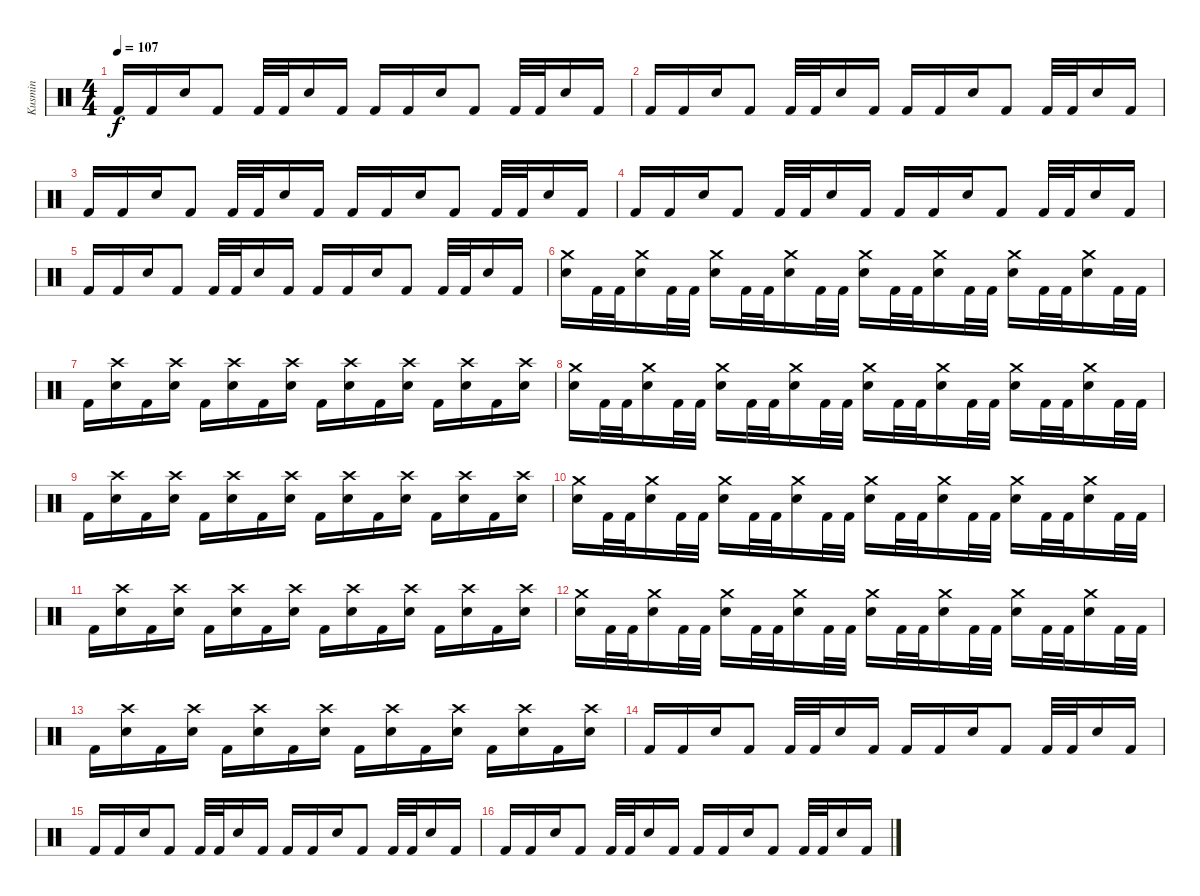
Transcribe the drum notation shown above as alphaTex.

\track ("Kusmin" "Kusmin") {instrument percussion}
\staff {score}
\articulation defaults
\ts (4 4)
\tempo 107
\clef neutral
\ks c "Kick (hit) 2".16{dy f} "Kick (hit) 2".16 "Snare (hit) 2".16 "Kick (hit) 2".8 "Kick (hit) 2".32 "Kick (hit) 2".32 "Snare (hit) 2".16 "Kick (hit) 2".16 "Kick (hit) 2".16 "Kick (hit) 2".16 "Snare (hit) 2".16 "Kick (hit) 2".8 "Kick (hit) 2".32 "Kick (hit) 2".32 "Snare (hit) 2".16 "Kick (hit) 2".16
|
"Kick (hit) 2".16 "Kick (hit) 2".16 "Snare (hit) 2".16 "Kick (hit) 2".8 "Kick (hit) 2".32 "Kick (hit) 2".32 "Snare (hit) 2".16 "Kick (hit) 2".16 "Kick (hit) 2".16 "Kick (hit) 2".16 "Snare (hit) 2".16 "Kick (hit) 2".8 "Kick (hit) 2".32 "Kick (hit) 2".32 "Snare (hit) 2".16 "Kick (hit) 2".16 |
"Kick (hit) 2".16 "Kick (hit) 2".16 "Snare (hit) 2".16 "Kick (hit) 2".8 "Kick (hit) 2".32 "Kick (hit) 2".32 "Snare (hit) 2".16 "Kick (hit) 2".16 "Kick (hit) 2".16 "Kick (hit) 2".16 "Snare (hit) 2".16 "Kick (hit) 2".8 "Kick (hit) 2".32 "Kick (hit) 2".32 "Snare (hit) 2".16 "Kick (hit) 2".16 |
"Kick (hit) 2".16 "Kick (hit) 2".16 "Snare (hit) 2".16 "Kick (hit) 2".8 "Kick (hit) 2".32 "Kick (hit) 2".32 "Snare (hit) 2".16 "Kick (hit) 2".16 "Kick (hit) 2".16 "Kick (hit) 2".16 "Snare (hit) 2".16 "Kick (hit) 2".8 "Kick (hit) 2".32 "Kick (hit) 2".32 "Snare (hit) 2".16 "Kick (hit) 2".16 |
"Kick (hit) 2".16 "Kick (hit) 2".16 "Snare (hit) 2".16 "Kick (hit) 2".8 "Kick (hit) 2".32 "Kick (hit) 2".32 "Snare (hit) 2".16 "Kick (hit) 2".16 "Kick (hit) 2".16 "Kick (hit) 2".16 "Snare (hit) 2".16 "Kick (hit) 2".8 "Kick (hit) 2".32 "Kick (hit) 2".32 "Snare (hit) 2".16 "Kick (hit) 2".16 |
("Crash medium (hit)" "Snare (hit) 2").16 "Kick (hit) 2".32 "Kick (hit) 2".32 ("Crash medium (hit)" "Snare (hit) 2").16 "Kick (hit) 2".32 "Kick (hit) 2".32 ("Crash medium (hit)" "Snare (hit) 2").16 "Kick (hit) 2".32 "Kick (hit) 2".32 ("Crash medium (hit)" "Snare (hit) 2").16 "Kick (hit) 2".32 "Kick (hit) 2".32 ("Crash medium (hit)" "Snare (hit) 2").16 "Kick (hit) 2".32 "Kick (hit) 2".32 ("Crash medium (hit)" "Snare (hit) 2").16 "Kick (hit) 2".32 "Kick (hit) 2".32 ("Crash medium (hit)" "Snare (hit) 2").16 "Kick (hit) 2".32 "Kick (hit) 2".32 ("Crash medium (hit)" "Snare (hit) 2").16 "Kick (hit) 2".32 "Kick (hit) 2".32 |
"Kick (hit) 2".16 ("Crash high (hit)" "Snare (hit) 2").16 "Kick (hit) 2".16 ("Crash high (hit)" "Snare (hit) 2").16 "Kick (hit) 2".16 ("Crash high (hit)" "Snare (hit) 2").16 "Kick (hit) 2".16 ("Crash high (hit)" "Snare (hit) 2").16 "Kick (hit) 2".16 ("Crash high (hit)" "Snare (hit) 2").16 "Kick (hit) 2".16 ("Crash high (hit)" "Snare (hit) 2").16 "Kick (hit) 2".16 ("Crash high (hit)" "Snare (hit) 2").16 "Kick (hit) 2".16 ("Crash high (hit)" "Snare (hit) 2").16 |
("Crash medium (hit)" "Snare (hit) 2").16 "Kick (hit) 2".32 "Kick (hit) 2".32 ("Crash medium (hit)" "Snare (hit) 2").16 "Kick (hit) 2".32 "Kick (hit) 2".32 ("Crash medium (hit)" "Snare (hit) 2").16 "Kick (hit) 2".32 "Kick (hit) 2".32 ("Crash medium (hit)" "Snare (hit) 2").16 "Kick (hit) 2".32 "Kick (hit) 2".32 ("Crash medium (hit)" "Snare (hit) 2").16 "Kick (hit) 2".32 "Kick (hit) 2".32 ("Crash medium (hit)" "Snare (hit) 2").16 "Kick (hit) 2".32 "Kick (hit) 2".32 ("Crash medium (hit)" "Snare (hit) 2").16 "Kick (hit) 2".32 "Kick (hit) 2".32 ("Crash medium (hit)" "Snare (hit) 2").16 "Kick (hit) 2".32 "Kick (hit) 2".32 |
"Kick (hit) 2".16 ("Crash high (hit)" "Snare (hit) 2").16 "Kick (hit) 2".16 ("Crash high (hit)" "Snare (hit) 2").16 "Kick (hit) 2".16 ("Crash high (hit)" "Snare (hit) 2").16 "Kick (hit) 2".16 ("Crash high (hit)" "Snare (hit) 2").16 "Kick (hit) 2".16 ("Crash high (hit)" "Snare (hit) 2").16 "Kick (hit) 2".16 ("Crash high (hit)" "Snare (hit) 2").16 "Kick (hit) 2".16 ("Crash high (hit)" "Snare (hit) 2").16 "Kick (hit) 2".16 ("Crash high (hit)" "Snare (hit) 2").16 |
("Crash medium (hit)" "Snare (hit) 2").16 "Kick (hit) 2".32 "Kick (hit) 2".32 ("Crash medium (hit)" "Snare (hit) 2").16 "Kick (hit) 2".32 "Kick (hit) 2".32 ("Crash medium (hit)" "Snare (hit) 2").16 "Kick (hit) 2".32 "Kick (hit) 2".32 ("Crash medium (hit)" "Snare (hit) 2").16 "Kick (hit) 2".32 "Kick (hit) 2".32 ("Crash medium (hit)" "Snare (hit) 2").16 "Kick (hit) 2".32 "Kick (hit) 2".32 ("Crash medium (hit)" "Snare (hit) 2").16 "Kick (hit) 2".32 "Kick (hit) 2".32 ("Crash medium (hit)" "Snare (hit) 2").16 "Kick (hit) 2".32 "Kick (hit) 2".32 ("Crash medium (hit)" "Snare (hit) 2").16 "Kick (hit) 2".32 "Kick (hit) 2".32 |
"Kick (hit) 2".16 ("Crash high (hit)" "Snare (hit) 2").16 "Kick (hit) 2".16 ("Crash high (hit)" "Snare (hit) 2").16 "Kick (hit) 2".16 ("Crash high (hit)" "Snare (hit) 2").16 "Kick (hit) 2".16 ("Crash high (hit)" "Snare (hit) 2").16 "Kick (hit) 2".16 ("Crash high (hit)" "Snare (hit) 2").16 "Kick (hit) 2".16 ("Crash high (hit)" "Snare (hit) 2").16 "Kick (hit) 2".16 ("Crash high (hit)" "Snare (hit) 2").16 "Kick (hit) 2".16 ("Crash high (hit)" "Snare (hit) 2").16 |
("Crash medium (hit)" "Snare (hit) 2").16 "Kick (hit) 2".32 "Kick (hit) 2".32 ("Crash medium (hit)" "Snare (hit) 2").16 "Kick (hit) 2".32 "Kick (hit) 2".32 ("Crash medium (hit)" "Snare (hit) 2").16 "Kick (hit) 2".32 "Kick (hit) 2".32 ("Crash medium (hit)" "Snare (hit) 2").16 "Kick (hit) 2".32 "Kick (hit) 2".32 ("Crash medium (hit)" "Snare (hit) 2").16 "Kick (hit) 2".32 "Kick (hit) 2".32 ("Crash medium (hit)" "Snare (hit) 2").16 "Kick (hit) 2".32 "Kick (hit) 2".32 ("Crash medium (hit)" "Snare (hit) 2").16 "Kick (hit) 2".32 "Kick (hit) 2".32 ("Crash medium (hit)" "Snare (hit) 2").16 "Kick (hit) 2".32 "Kick (hit) 2".32 |
"Kick (hit) 2".16 ("Crash high (hit)" "Snare (hit) 2").16 "Kick (hit) 2".16 ("Crash high (hit)" "Snare (hit) 2").16 "Kick (hit) 2".16 ("Crash high (hit)" "Snare (hit) 2").16 "Kick (hit) 2".16 ("Crash high (hit)" "Snare (hit) 2").16 "Kick (hit) 2".16 ("Crash high (hit)" "Snare (hit) 2").16 "Kick (hit) 2".16 ("Crash high (hit)" "Snare (hit) 2").16 "Kick (hit) 2".16 ("Crash high (hit)" "Snare (hit) 2").16 "Kick (hit) 2".16 ("Crash high (hit)" "Snare (hit) 2").16 |
"Kick (hit) 2".16 "Kick (hit) 2".16 "Snare (hit) 2".16 "Kick (hit) 2".8 "Kick (hit) 2".32 "Kick (hit) 2".32 "Snare (hit) 2".16 "Kick (hit) 2".16 "Kick (hit) 2".16 "Kick (hit) 2".16 "Snare (hit) 2".16 "Kick (hit) 2".8 "Kick (hit) 2".32 "Kick (hit) 2".32 "Snare (hit) 2".16 "Kick (hit) 2".16 |
"Kick (hit) 2".16 "Kick (hit) 2".16 "Snare (hit) 2".16 "Kick (hit) 2".8 "Kick (hit) 2".32 "Kick (hit) 2".32 "Snare (hit) 2".16 "Kick (hit) 2".16 "Kick (hit) 2".16 "Kick (hit) 2".16 "Snare (hit) 2".16 "Kick (hit) 2".8 "Kick (hit) 2".32 "Kick (hit) 2".32 "Snare (hit) 2".16 "Kick (hit) 2".16 |
"Kick (hit) 2".16 "Kick (hit) 2".16 "Snare (hit) 2".16 "Kick (hit) 2".8 "Kick (hit) 2".32 "Kick (hit) 2".32 "Snare (hit) 2".16 "Kick (hit) 2".16 "Kick (hit) 2".16 "Kick (hit) 2".16 "Snare (hit) 2".16 "Kick (hit) 2".8 "Kick (hit) 2".32 "Kick (hit) 2".32 "Snare (hit) 2".16 "Kick (hit) 2".16
